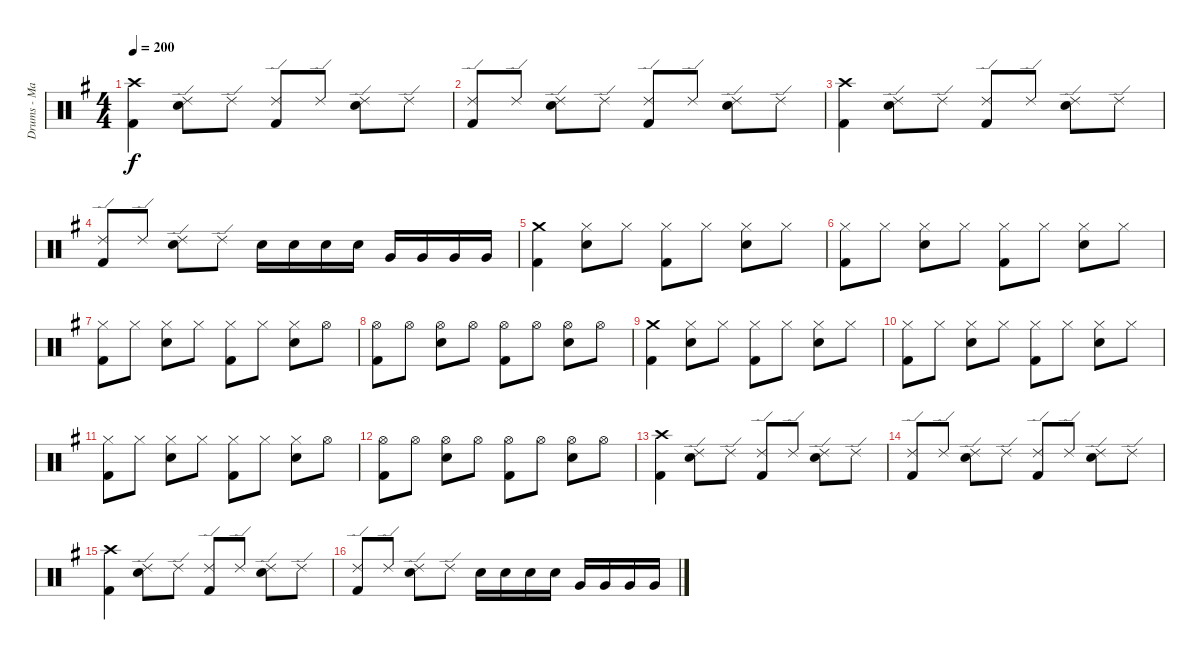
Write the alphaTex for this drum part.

\track ("Drums - Marky Ramone" "Drums - Ma") {instrument percussion}
\staff {score}
\articulation defaults
\ts (4 4)
\tempo 200
\clef neutral
\ks g
("Crash high (hit)" "Kick (hit) 2").4{dy f} ("Ride (edge) 2" "Snare (hit) 2").8 "Ride (edge) 2".8 ("Ride (edge) 2" "Kick (hit) 2").8 "Ride (edge) 2".8 ("Ride (edge) 2" "Snare (hit) 2").8 "Ride (edge) 2".8 |
("Ride (edge) 2" "Kick (hit) 2").8 "Ride (edge) 2".8 ("Ride (edge) 2" "Snare (hit) 2").8 "Ride (edge) 2".8 ("Ride (edge) 2" "Kick (hit) 2").8 "Ride (edge) 2".8 ("Ride (edge) 2" "Snare (hit) 2").8 "Ride (edge) 2".8 |
("Crash high (hit)" "Kick (hit) 2").4 ("Ride (edge) 2" "Snare (hit) 2").8 "Ride (edge) 2".8 ("Ride (edge) 2" "Kick (hit) 2").8 "Ride (edge) 2".8 ("Ride (edge) 2" "Snare (hit) 2").8 "Ride (edge) 2".8 |
("Ride (edge) 2" "Kick (hit) 2").8 "Ride (edge) 2".8 ("Ride (edge) 2" "Snare (hit) 2").8 "Ride (edge) 2".8 "Snare (hit) 2".16 "Snare (hit) 2".16 "Snare (hit) 2".16 "Snare (hit) 2".16 "Very Low Tom (hit)".16 "Very Low Tom (hit)".16 "Very Low Tom (hit)".16 "Very Low Tom (hit)".16 |
("Crash medium (hit)" "Kick (hit) 2").4 ("Hi-Hat (closed)" "Snare (hit) 2").8 "Hi-Hat (closed)".8 ("Hi-Hat (closed)" "Kick (hit) 2").8 "Hi-Hat (closed)".8 ("Hi-Hat (closed)" "Snare (hit) 2").8 "Hi-Hat (closed)".8 |
("Hi-Hat (closed)" "Kick (hit) 2").8 "Hi-Hat (closed)".8 ("Hi-Hat (closed)" "Snare (hit) 2").8 "Hi-Hat (closed)".8 ("Hi-Hat (closed)" "Kick (hit) 2").8 "Hi-Hat (closed)".8 ("Hi-Hat (closed)" "Snare (hit) 2").8 "Hi-Hat (closed)".8 |
("Hi-Hat (closed)" "Kick (hit) 2").8 "Hi-Hat (closed)".8 ("Hi-Hat (closed)" "Snare (hit) 2").8 "Hi-Hat (closed)".8 ("Hi-Hat (closed)" "Kick (hit) 2").8 "Hi-Hat (closed)".8 ("Hi-Hat (closed)" "Snare (hit) 2").8 "Hi-Hat (open)".8 |
("Hi-Hat (open)" "Kick (hit) 2").8 "Hi-Hat (open)".8 ("Hi-Hat (open)" "Snare (hit) 2").8 "Hi-Hat (open)".8 ("Hi-Hat (open)" "Kick (hit) 2").8 "Hi-Hat (open)".8 ("Hi-Hat (open)" "Snare (hit) 2").8 "Hi-Hat (open)".8 |
("Crash medium (hit)" "Kick (hit) 2").4 ("Hi-Hat (closed)" "Snare (hit) 2").8 "Hi-Hat (closed)".8 ("Hi-Hat (closed)" "Kick (hit) 2").8 "Hi-Hat (closed)".8 ("Hi-Hat (closed)" "Snare (hit) 2").8 "Hi-Hat (closed)".8 |
("Hi-Hat (closed)" "Kick (hit) 2").8 "Hi-Hat (closed)".8 ("Hi-Hat (closed)" "Snare (hit) 2").8 "Hi-Hat (closed)".8 ("Hi-Hat (closed)" "Kick (hit) 2").8 "Hi-Hat (closed)".8 ("Hi-Hat (closed)" "Snare (hit) 2").8 "Hi-Hat (closed)".8 |
("Hi-Hat (closed)" "Kick (hit) 2").8 "Hi-Hat (closed)".8 ("Hi-Hat (closed)" "Snare (hit) 2").8 "Hi-Hat (closed)".8 ("Hi-Hat (closed)" "Kick (hit) 2").8 "Hi-Hat (closed)".8 ("Hi-Hat (closed)" "Snare (hit) 2").8 "Hi-Hat (open)".8 |
("Hi-Hat (open)" "Kick (hit) 2").8 "Hi-Hat (open)".8 ("Hi-Hat (open)" "Snare (hit) 2").8 "Hi-Hat (open)".8 ("Hi-Hat (open)" "Kick (hit) 2").8 "Hi-Hat (open)".8 ("Hi-Hat (open)" "Snare (hit) 2").8 "Hi-Hat (open)".8 |
("Crash high (hit)" "Kick (hit) 2").4 ("Ride (edge) 2" "Snare (hit) 2").8 "Ride (edge) 2".8 ("Ride (edge) 2" "Kick (hit) 2").8 "Ride (edge) 2".8 ("Ride (edge) 2" "Snare (hit) 2").8 "Ride (edge) 2".8 |
("Ride (edge) 2" "Kick (hit) 2").8 "Ride (edge) 2".8 ("Ride (edge) 2" "Snare (hit) 2").8 "Ride (edge) 2".8 ("Ride (edge) 2" "Kick (hit) 2").8 "Ride (edge) 2".8 ("Ride (edge) 2" "Snare (hit) 2").8 "Ride (edge) 2".8 |
("Crash high (hit)" "Kick (hit) 2").4 ("Ride (edge) 2" "Snare (hit) 2").8 "Ride (edge) 2".8 ("Ride (edge) 2" "Kick (hit) 2").8 "Ride (edge) 2".8 ("Ride (edge) 2" "Snare (hit) 2").8 "Ride (edge) 2".8 |
("Ride (edge) 2" "Kick (hit) 2").8 "Ride (edge) 2".8 ("Ride (edge) 2" "Snare (hit) 2").8 "Ride (edge) 2".8 "Snare (hit) 2".16 "Snare (hit) 2".16 "Snare (hit) 2".16 "Snare (hit) 2".16 "Very Low Tom (hit)".16 "Very Low Tom (hit)".16 "Very Low Tom (hit)".16 "Very Low Tom (hit)".16
